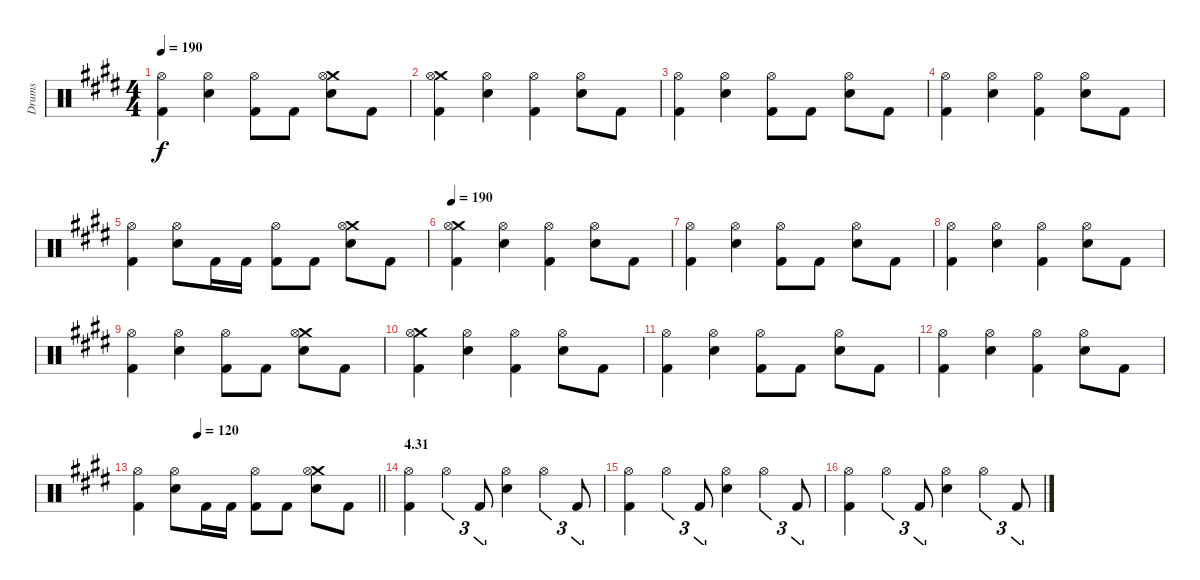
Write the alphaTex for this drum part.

\track ("Drums" "Drums") {instrument percussion}
\staff {score}
\articulation defaults
\ts (4 4)
\tempo 190
\clef neutral
\ks c#minor
("Hi-Hat (open)" "Kick (hit) 2").4{dy f} ("Hi-Hat (open)" "Electric Snare (hit)").4 ("Hi-Hat (open)" "Kick (hit) 2").8 "Kick (hit) 2".8 ("Crash medium (hit)" "Hi-Hat (open)" "Electric Snare (hit)").8 "Kick (hit) 2".8 |
("Crash medium (hit)" "Hi-Hat (open)" "Kick (hit) 2").4 ("Hi-Hat (open)" "Electric Snare (hit)").4 ("Hi-Hat (open)" "Kick (hit) 2").4 ("Hi-Hat (open)" "Electric Snare (hit)").8 "Kick (hit) 2".8 |
("Hi-Hat (open)" "Kick (hit) 2").4 ("Hi-Hat (open)" "Electric Snare (hit)").4 ("Hi-Hat (open)" "Kick (hit) 2").8 "Kick (hit) 2".8 ("Hi-Hat (open)" "Electric Snare (hit)").8 "Kick (hit) 2".8 |
("Hi-Hat (open)" "Kick (hit) 2").4 ("Hi-Hat (open)" "Electric Snare (hit)").4 ("Hi-Hat (open)" "Kick (hit) 2").4 ("Hi-Hat (open)" "Electric Snare (hit)").8 "Kick (hit) 2".8 |
("Hi-Hat (open)" "Kick (hit) 2").4 ("Hi-Hat (open)" "Electric Snare (hit)").8 "Kick (hit) 2".16 "Kick (hit) 2".16 ("Hi-Hat (open)" "Kick (hit) 2").8 "Kick (hit) 2".8 ("Crash medium (hit)" "Hi-Hat (open)" "Electric Snare (hit)").8 "Kick (hit) 2".8 |
\tempo 190
("Crash medium (hit)" "Hi-Hat (open)" "Kick (hit) 2").4 ("Hi-Hat (open)" "Electric Snare (hit)").4 ("Hi-Hat (open)" "Kick (hit) 2").4 ("Hi-Hat (open)" "Electric Snare (hit)").8 "Kick (hit) 2".8 |
("Hi-Hat (open)" "Kick (hit) 2").4 ("Hi-Hat (open)" "Electric Snare (hit)").4 ("Hi-Hat (open)" "Kick (hit) 2").8 "Kick (hit) 2".8 ("Hi-Hat (open)" "Electric Snare (hit)").8 "Kick (hit) 2".8 |
("Hi-Hat (open)" "Kick (hit) 2").4 ("Hi-Hat (open)" "Electric Snare (hit)").4 ("Hi-Hat (open)" "Kick (hit) 2").4 ("Hi-Hat (open)" "Electric Snare (hit)").8 "Kick (hit) 2".8 |
("Hi-Hat (open)" "Kick (hit) 2").4 ("Hi-Hat (open)" "Electric Snare (hit)").4 ("Hi-Hat (open)" "Kick (hit) 2").8 "Kick (hit) 2".8 ("Crash medium (hit)" "Hi-Hat (open)" "Electric Snare (hit)").8 "Kick (hit) 2".8 |
("Crash medium (hit)" "Hi-Hat (open)" "Kick (hit) 2").4 ("Hi-Hat (open)" "Electric Snare (hit)").4 ("Hi-Hat (open)" "Kick (hit) 2").4 ("Hi-Hat (open)" "Electric Snare (hit)").8 "Kick (hit) 2".8 |
("Hi-Hat (open)" "Kick (hit) 2").4 ("Hi-Hat (open)" "Electric Snare (hit)").4 ("Hi-Hat (open)" "Kick (hit) 2").8 "Kick (hit) 2".8 ("Hi-Hat (open)" "Electric Snare (hit)").8 "Kick (hit) 2".8 |
("Hi-Hat (open)" "Kick (hit) 2").4 ("Hi-Hat (open)" "Electric Snare (hit)").4 ("Hi-Hat (open)" "Kick (hit) 2").4 ("Hi-Hat (open)" "Electric Snare (hit)").8 "Kick (hit) 2".8 |
\tempo (120 0.25)
\barLineRight lightlight
("Hi-Hat (open)" "Kick (hit) 2").4 ("Hi-Hat (open)" "Electric Snare (hit)").8 "Kick (hit) 2".16 "Kick (hit) 2".16 ("Hi-Hat (open)" "Kick (hit) 2").8 "Kick (hit) 2".8 ("Crash medium (hit)" "Hi-Hat (open)" "Electric Snare (hit)").8 "Kick (hit) 2".8 |
\section ("" "4.31")
("Hi-Hat (open)" "Kick (hit) 2").4 "Hi-Hat (open)".4{tu (3 2)} "Kick (hit) 2".8{tu (3 2)} ("Hi-Hat (open)" "Electric Snare (hit)").4 "Hi-Hat (open)".4{tu (3 2)} "Kick (hit) 2".8{tu (3 2)} |
("Hi-Hat (open)" "Kick (hit) 2").4 "Hi-Hat (open)".4{tu (3 2)} "Kick (hit) 2".8{tu (3 2)} ("Hi-Hat (open)" "Electric Snare (hit)").4 "Hi-Hat (open)".4{tu (3 2)} "Kick (hit) 2".8{tu (3 2)} |
("Hi-Hat (open)" "Kick (hit) 2").4 "Hi-Hat (open)".4{tu (3 2)} "Kick (hit) 2".8{tu (3 2)} ("Hi-Hat (open)" "Electric Snare (hit)").4 "Hi-Hat (open)".4{tu (3 2)} "Kick (hit) 2".8{tu (3 2)}
